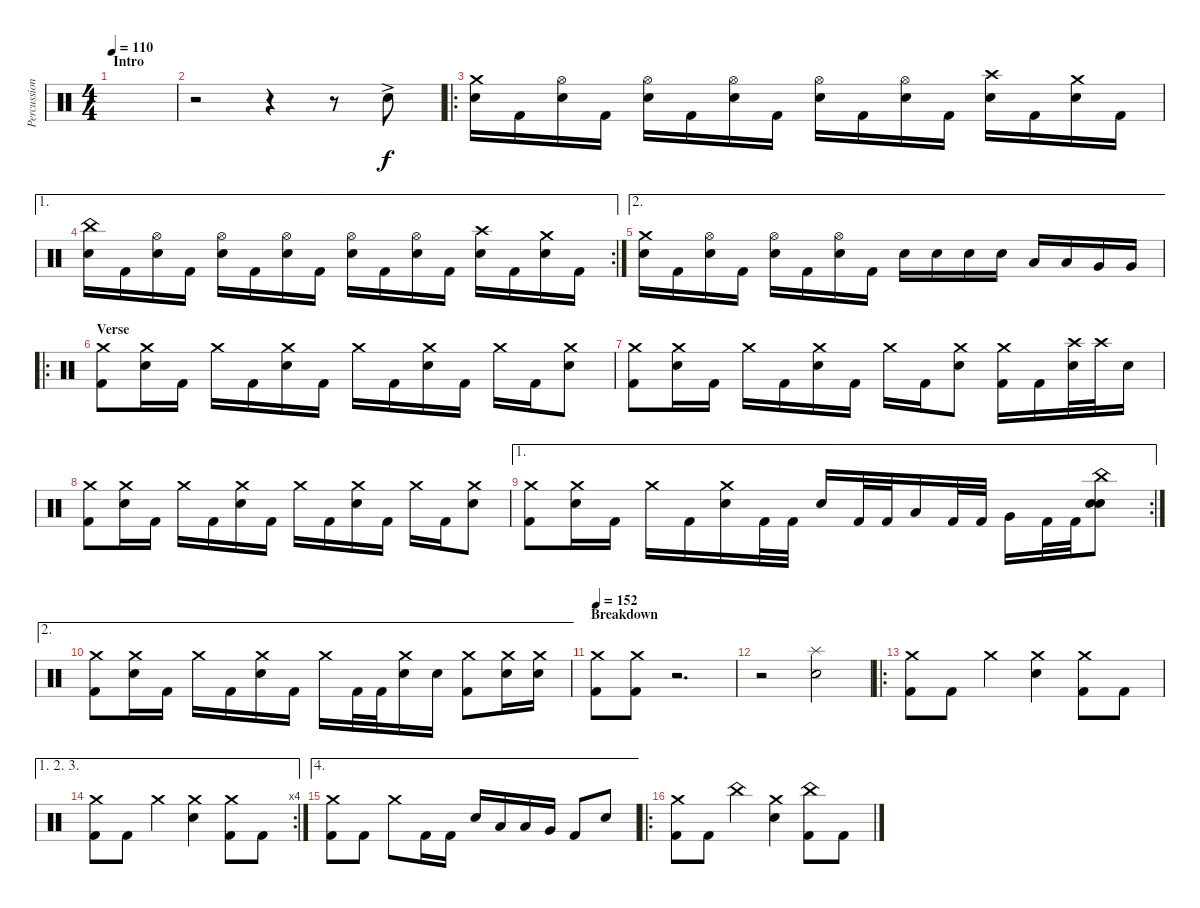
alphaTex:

\track ("Percussion" "Percussion") {instrument percussion}
\staff {score}
\articulation defaults
\ts (4 4)
\section ("" "Intro")
\tempo 110
\clef neutral
\ks c
|
r.2 r.4 r.8 "Electric Snare (hit)"{ac}.8 |
\ro
("Crash medium (hit)" "Electric Snare (hit)").16{dy f} "Kick (hit) 2".16 ("Hi-Hat (open)" "Electric Snare (hit)").16 "Kick (hit) 2".16 ("Hi-Hat (open)" "Electric Snare (hit)").16 "Kick (hit) 2".16 ("Hi-Hat (open)" "Electric Snare (hit)").16 "Kick (hit) 2".16 ("Hi-Hat (open)" "Electric Snare (hit)").16 "Kick (hit) 2".16 ("Hi-Hat (open)" "Electric Snare (hit)").16 "Kick (hit) 2".16 ("Crash high (hit)" "Electric Snare (hit)").16 "Kick (hit) 2".16 ("Crash medium (hit)" "Electric Snare (hit)").16 "Kick (hit) 2".16 |
\ae 1
\rc 2
("China (hit)" "Electric Snare (hit)").16 "Kick (hit) 2".16 ("Hi-Hat (open)" "Electric Snare (hit)").16 "Kick (hit) 2".16 ("Hi-Hat (open)" "Electric Snare (hit)").16 "Kick (hit) 2".16 ("Hi-Hat (open)" "Electric Snare (hit)").16 "Kick (hit) 2".16 ("Hi-Hat (open)" "Electric Snare (hit)").16 "Kick (hit) 2".16 ("Hi-Hat (open)" "Electric Snare (hit)").16 "Kick (hit) 2".16 ("Crash high (hit)" "Electric Snare (hit)").16 "Kick (hit) 2".16 ("Crash medium (hit)" "Electric Snare (hit)").16 "Kick (hit) 2".16 |
\ae 2
("Crash medium (hit)" "Electric Snare (hit)").16 "Kick (hit) 2".16 ("Hi-Hat (open)" "Electric Snare (hit)").16 "Kick (hit) 2".16 ("Hi-Hat (open)" "Electric Snare (hit)").16 "Kick (hit) 2".16 ("Hi-Hat (open)" "Electric Snare (hit)").16 "Kick (hit) 2".16 "Electric Snare (hit)".16 "Electric Snare (hit)".16 "Electric Snare (hit)".16 "Electric Snare (hit)".16 "Low Tom (hit)".16 "Low Tom (hit)".16 "Very Low Tom (hit)".16 "Very Low Tom (hit)".16 |
\ro
\section ("" "Verse")
("Crash medium (hit)" "Kick (hit) 2").8 ("Crash medium (hit)" "Electric Snare (hit)").16 "Kick (hit) 2".16 "Crash medium (hit)".16 "Kick (hit) 2".16 ("Crash medium (hit)" "Electric Snare (hit)").16 "Kick (hit) 2".16 "Crash medium (hit)".16 "Kick (hit) 2".16 ("Crash medium (hit)" "Electric Snare (hit)").16 "Kick (hit) 2".16 "Crash medium (hit)".16 "Kick (hit) 2".16 ("Crash medium (hit)" "Electric Snare (hit)").8 |
("Crash medium (hit)" "Kick (hit) 2").8 ("Crash medium (hit)" "Electric Snare (hit)").16 "Kick (hit) 2".16 "Crash medium (hit)".16 "Kick (hit) 2".16 ("Crash medium (hit)" "Electric Snare (hit)").16 "Kick (hit) 2".16 "Crash medium (hit)".16 "Kick (hit) 2".16 ("Crash medium (hit)" "Electric Snare (hit)").8 ("Crash medium (hit)" "Kick (hit) 2").16 "Kick (hit) 2".16 ("Crash high (hit)" "Electric Snare (hit)").32 "Crash high (hit)".32 "Electric Snare (hit)".16 |
("Crash medium (hit)" "Kick (hit) 2").8 ("Crash medium (hit)" "Electric Snare (hit)").16 "Kick (hit) 2".16 "Crash medium (hit)".16 "Kick (hit) 2".16 ("Crash medium (hit)" "Electric Snare (hit)").16 "Kick (hit) 2".16 "Crash medium (hit)".16 "Kick (hit) 2".16 ("Crash medium (hit)" "Electric Snare (hit)").16 "Kick (hit) 2".16 "Crash medium (hit)".16 "Kick (hit) 2".16 ("Crash medium (hit)" "Electric Snare (hit)").8 |
\ae 1
\rc 2
("Crash medium (hit)" "Kick (hit) 2").8 ("Crash medium (hit)" "Electric Snare (hit)").16 "Kick (hit) 2".16 "Crash medium (hit)".16 "Kick (hit) 2".16 ("Crash medium (hit)" "Electric Snare (hit)").16 "Kick (hit) 2".32 "Kick (hit) 2".32 "Electric Snare (hit)".16 "Kick (hit) 2".32 "Kick (hit) 2".32 "Low Tom (hit)".16 "Kick (hit) 2".32 "Kick (hit) 2".32 "Very Low Tom (hit)".16 "Kick (hit) 2".32 "Kick (hit) 2".32 ("China (hit)" "Electric Snare (hit)" "Electric Snare (hit)").8 |
\ae 2
("Crash medium (hit)" "Kick (hit) 2").8 ("Crash medium (hit)" "Electric Snare (hit)").16 "Kick (hit) 2".16 "Crash medium (hit)".16 "Kick (hit) 2".16 ("Crash medium (hit)" "Electric Snare (hit)").16 "Kick (hit) 2".16 "Crash medium (hit)".16 "Kick (hit) 2".32 "Kick (hit) 2".32 ("Crash medium (hit)" "Electric Snare (hit)").16 "Electric Snare (hit)".16 ("Crash medium (hit)" "Kick (hit) 2").8 ("Crash medium (hit)" "Electric Snare (hit)").16 ("Crash medium (hit)" "Electric Snare (hit)").16 |
\section ("" "Breakdown")
\tempo 152
("Crash medium (hit)" "Kick (hit) 2").8 ("Crash medium (hit)" "Kick (hit) 2").8 r.2{d} |
r.2 ("Splash (hit)" "Electric Snare (hit)").2 |
\ro
("Crash medium (hit)" "Kick (hit) 2").8 "Kick (hit) 2".8 "Crash medium (hit)".4 ("Crash medium (hit)" "Electric Snare (hit)").4 ("Crash medium (hit)" "Kick (hit) 2").8 "Kick (hit) 2".8 |
\ae (1 2 3)
\rc 4
("Crash medium (hit)" "Kick (hit) 2").8 "Kick (hit) 2".8 "Crash medium (hit)".4 ("Crash medium (hit)" "Electric Snare (hit)").4 ("Crash medium (hit)" "Kick (hit) 2").8 "Kick (hit) 2".8 |
\ae 4
("Crash medium (hit)" "Kick (hit) 2").8 "Kick (hit) 2".8 "Crash medium (hit)".8 "Kick (hit) 2".16 "Kick (hit) 2".16 "Electric Snare (hit)".16 "Low Tom (hit)".16 "Low Tom (hit)".16 "Very Low Tom (hit)".16 "Kick (hit) 2".8 "Electric Snare (hit)".8 |
\ro
("Crash medium (hit)" "Kick (hit) 2").8 "Kick (hit) 2".8 "China (hit)".4 ("Crash medium (hit)" "Electric Snare (hit)").4 ("China (hit)" "Kick (hit) 2").8 "Kick (hit) 2".8
